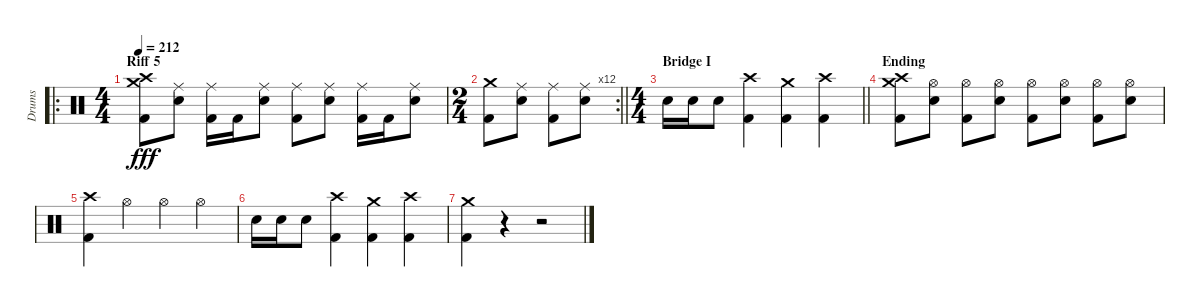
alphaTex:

\track ("Drums" "Drums") {instrument percussion}
\staff {score}
\articulation defaults
\ro
\ts (4 4)
\section ("" "Riff 5")
\tempo 212
\clef neutral
\ks c
("Crash high (hit)" "Crash medium (hit)" "Kick (hit) 2").8{dy fff} ("Ride (middle)" "Electric Snare (hit)").8 ("Ride (middle)" "Kick (hit) 2").16 "Kick (hit) 2".16 ("Ride (middle)" "Electric Snare (hit)").8 ("Ride (middle)" "Kick (hit) 2").8 ("Ride (middle)" "Electric Snare (hit)").8 ("Ride (middle)" "Kick (hit) 2").16 "Kick (hit) 2".16 ("Ride (middle)" "Electric Snare (hit)").8 |
\rc 12
\ts (2 4)
\barLineRight lightlight
("Crash medium (hit)" "Kick (hit) 2").8 ("Ride (middle)" "Electric Snare (hit)").8 ("Ride (middle)" "Kick (hit) 2").8 ("Ride (middle)" "Electric Snare (hit)").8 |
\ts (4 4)
\section ("" "Bridge I")
\barLineRight lightlight "Electric Snare (hit)".16 "Electric Snare (hit)".16 "Electric Snare (hit)".8
("Crash high (hit)" "Kick (hit) 2").4 ("Crash medium (hit)" "Kick (hit) 2").4 ("Crash high (hit)" "Kick (hit) 2").4 |
\section ("" "Ending")
("Crash high (hit)" "Crash medium (hit)" "Kick (hit) 2").8 ("Hi-Hat (open)" "Snare (hit) 2").8 ("Hi-Hat (open)" "Kick (hit) 2").8 ("Hi-Hat (open)" "Snare (hit) 2").8 ("Hi-Hat (open)" "Kick (hit) 2").8 ("Hi-Hat (open)" "Snare (hit) 2").8 ("Hi-Hat (open)" "Kick (hit) 2").8 ("Hi-Hat (open)" "Snare (hit) 2").8 |
("Crash high (hit)" "Kick (hit) 2").4 "Hi-Hat (open)".4 "Hi-Hat (open)".4 "Hi-Hat (open)".4 |
"Electric Snare (hit)".16 "Electric Snare (hit)".16 "Electric Snare (hit)".8 ("Crash high (hit)" "Kick (hit) 2").4 ("Crash medium (hit)" "Kick (hit) 2").4 ("Crash high (hit)" "Kick (hit) 2").4 |
("Crash medium (hit)" "Kick (hit) 2").4 r.4 r.2
